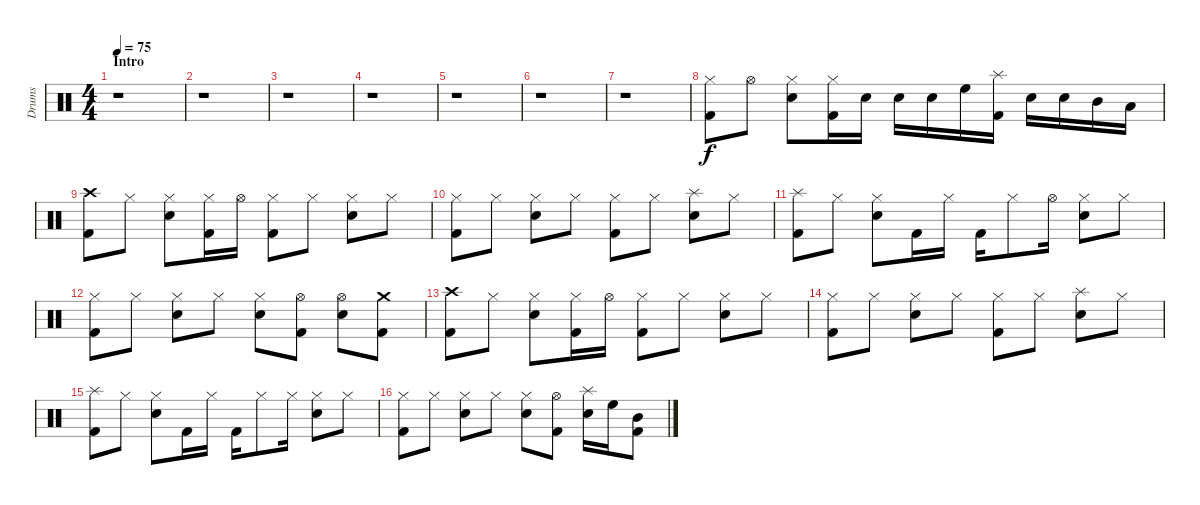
\track ("Drums" "Drums") {instrument percussion}
\staff {score}
\articulation defaults
\ts (4 4)
\section ("" "Intro")
\tempo 75
\clef neutral
\ks c
r.1{dy f} |
r.1 |
r.1 |
r.1 |
r.1 |
r.1 |
r.1 |
("Hi-Hat (closed)" "Kick (hit) 2").8 "Hi-Hat (open)".8 ("Hi-Hat (closed)" "Snare (hit) 2").8 ("Hi-Hat (closed)" "Kick (hit) 2").16 "Snare (hit) 2".16 "Snare (hit) 2".16 "Snare (hit) 2".16 "High Floor Tom (hit)".16 ("Splash (hit)" "Kick (hit) 2").16 "Snare (hit) 2".16 "Snare (hit) 2".16 "Mid Tom (hit)".16 "Low Tom (hit)".16 |
("Crash high (hit)" "Kick (hit) 2").8 "Hi-Hat (closed)".8 ("Hi-Hat (closed)" "Snare (hit) 2").8 ("Hi-Hat (closed)" "Kick (hit) 2").16 "Hi-Hat (open)".16 ("Hi-Hat (closed)" "Kick (hit) 2").8 "Hi-Hat (closed)".8 ("Hi-Hat (closed)" "Snare (hit) 2").8 "Hi-Hat (closed)".8 |
("Hi-Hat (closed)" "Kick (hit) 2").8 "Hi-Hat (closed)".8 ("Hi-Hat (closed)" "Snare (hit) 2").8 "Hi-Hat (closed)".8 ("Hi-Hat (closed)" "Kick (hit) 2").8 "Hi-Hat (closed)".8 ("Splash (hit)" "Snare (hit) 2").8 "Hi-Hat (closed)".8 |
("Splash (hit)" "Kick (hit) 2").8 "Hi-Hat (closed)".8 ("Hi-Hat (closed)" "Snare (hit) 2").8 "Kick (hit) 2".16 "Hi-Hat (closed)".16 "Kick (hit) 2".16 "Hi-Hat (closed)".8 "Hi-Hat (open)".16 ("Hi-Hat (closed)" "Snare (hit) 2").8 "Hi-Hat (closed)".8 |
("Hi-Hat (closed)" "Kick (hit) 2").8 "Hi-Hat (closed)".8 ("Hi-Hat (closed)" "Snare (hit) 2").8 "Hi-Hat (closed)".8 ("Hi-Hat (closed)" "Snare (hit) 2").8 ("Hi-Hat (open)" "Kick (hit) 2").8 ("Hi-Hat (open)" "Snare (hit) 2").8 ("Crash medium (hit)" "Kick (hit) 2").8 |
("Crash high (hit)" "Kick (hit) 2").8 "Hi-Hat (closed)".8 ("Hi-Hat (closed)" "Snare (hit) 2").8 ("Hi-Hat (closed)" "Kick (hit) 2").16 "Hi-Hat (open)".16 ("Hi-Hat (closed)" "Kick (hit) 2").8 "Hi-Hat (closed)".8 ("Hi-Hat (closed)" "Snare (hit) 2").8 "Hi-Hat (closed)".8 |
("Hi-Hat (closed)" "Kick (hit) 2").8 "Hi-Hat (closed)".8 ("Hi-Hat (closed)" "Snare (hit) 2").8 "Hi-Hat (closed)".8 ("Hi-Hat (closed)" "Kick (hit) 2").8 "Hi-Hat (closed)".8 ("Splash (hit)" "Snare (hit) 2").8 "Hi-Hat (closed)".8 |
("Splash (hit)" "Kick (hit) 2").8 "Hi-Hat (closed)".8 ("Hi-Hat (closed)" "Snare (hit) 2").8 "Kick (hit) 2".16 "Hi-Hat (closed)".16 "Kick (hit) 2".16 "Hi-Hat (closed)".8 "Hi-Hat (closed)".16 ("Hi-Hat (closed)" "Snare (hit) 2").8 "Hi-Hat (closed)".8 |
("Hi-Hat (closed)" "Kick (hit) 2").8 "Hi-Hat (closed)".8 ("Hi-Hat (closed)" "Snare (hit) 2").8 "Hi-Hat (closed)".8 ("Hi-Hat (closed)" "Snare (hit) 2").8 ("Hi-Hat (open)" "Kick (hit) 2").8 ("Splash (hit)" "Snare (hit) 2").16 "High Floor Tom (hit)".16 ("Mid Tom (hit)" "Kick (hit) 2").8
